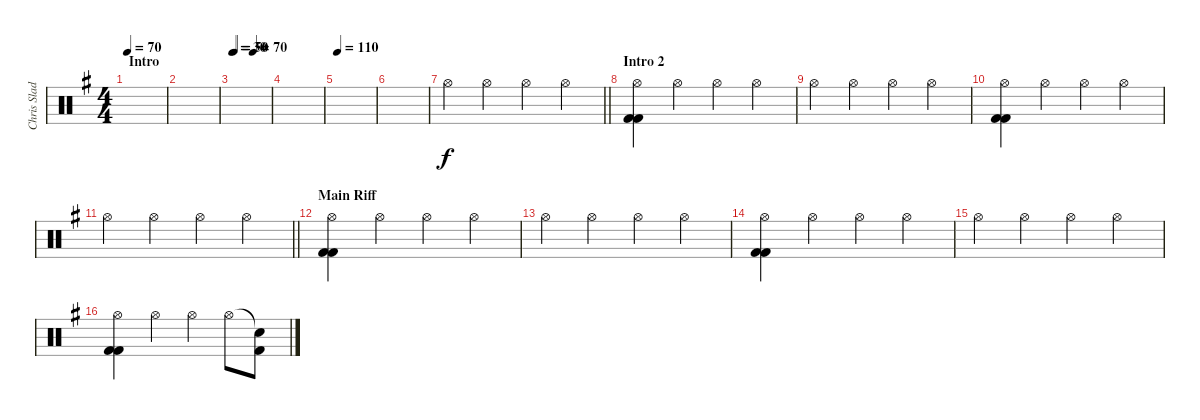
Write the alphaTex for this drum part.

\track ("Chris Slade (Percussion)" "Chris Slad") {instrument percussion}
\staff {score}
\articulation defaults
\ts (4 4)
\section ("" "Intro")
\tempo 70
\clef neutral
\ks g
|
|
\tempo 30
\tempo (50 0.041666666666666664)
\tempo (70 0.5416666666666666)
|
|
\tempo 110
|
|
\barLineRight lightlight "Hi-Hat (open)".4 "Hi-Hat (open)".4 "Hi-Hat (open)".4 "Hi-Hat (open)".4
|
\section ("" "Intro 2")
("Hi-Hat (open)" "Kick (hit) 2" "Kick (hit) 2").4 "Hi-Hat (open)".4 "Hi-Hat (open)".4 "Hi-Hat (open)".4 |
"Hi-Hat (open)".4 "Hi-Hat (open)".4 "Hi-Hat (open)".4 "Hi-Hat (open)".4 |
("Hi-Hat (open)" "Kick (hit) 2" "Kick (hit) 2").4 "Hi-Hat (open)".4 "Hi-Hat (open)".4 "Hi-Hat (open)".4 |
\barLineRight lightlight "Hi-Hat (open)".4 "Hi-Hat (open)".4 "Hi-Hat (open)".4 "Hi-Hat (open)".4
|
\section ("" "Main Riff")
("Hi-Hat (open)" "Kick (hit) 2" "Kick (hit) 2").4 "Hi-Hat (open)".4 "Hi-Hat (open)".4 "Hi-Hat (open)".4 |
"Hi-Hat (open)".4 "Hi-Hat (open)".4 "Hi-Hat (open)".4 "Hi-Hat (open)".4 |
("Hi-Hat (open)" "Kick (hit) 2" "Kick (hit) 2").4 "Hi-Hat (open)".4 "Hi-Hat (open)".4 "Hi-Hat (open)".4 |
"Hi-Hat (open)".4 "Hi-Hat (open)".4 "Hi-Hat (open)".4 "Hi-Hat (open)".4 |
("Hi-Hat (open)" "Kick (hit) 2" "Kick (hit) 2").4 "Hi-Hat (open)".4 "Hi-Hat (open)".4 "Hi-Hat (open)".8 ("Snare (hit)"{t} "Kick (hit) 2").8
